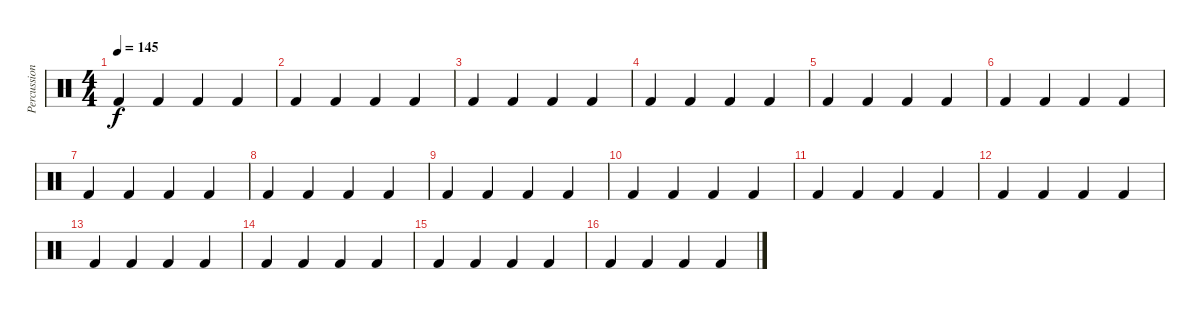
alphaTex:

\track ("Percussion" "Percussion") {instrument percussion bank 1}
\staff {score}
\articulation defaults
\ts (4 4)
\tempo 145
\clef neutral
\ks c "Kick (hit) 2".4{dy f} "Kick (hit) 2".4 "Kick (hit) 2".4 "Kick (hit) 2".4
|
"Kick (hit) 2".4 "Kick (hit) 2".4 "Kick (hit) 2".4 "Kick (hit) 2".4 |
"Kick (hit) 2".4 "Kick (hit) 2".4 "Kick (hit) 2".4 "Kick (hit) 2".4 |
"Kick (hit) 2".4 "Kick (hit) 2".4 "Kick (hit) 2".4 "Kick (hit) 2".4 |
"Kick (hit) 2".4 "Kick (hit) 2".4 "Kick (hit) 2".4 "Kick (hit) 2".4 |
"Kick (hit) 2".4 "Kick (hit) 2".4 "Kick (hit) 2".4 "Kick (hit) 2".4 |
"Kick (hit) 2".4 "Kick (hit) 2".4 "Kick (hit) 2".4 "Kick (hit) 2".4 |
"Kick (hit) 2".4 "Kick (hit) 2".4 "Kick (hit) 2".4 "Kick (hit) 2".4 |
"Kick (hit) 2".4 "Kick (hit) 2".4 "Kick (hit) 2".4 "Kick (hit) 2".4 |
"Kick (hit) 2".4 "Kick (hit) 2".4 "Kick (hit) 2".4 "Kick (hit) 2".4 |
"Kick (hit) 2".4 "Kick (hit) 2".4 "Kick (hit) 2".4 "Kick (hit) 2".4 |
"Kick (hit) 2".4 "Kick (hit) 2".4 "Kick (hit) 2".4 "Kick (hit) 2".4 |
"Kick (hit) 2".4 "Kick (hit) 2".4 "Kick (hit) 2".4 "Kick (hit) 2".4 |
"Kick (hit) 2".4 "Kick (hit) 2".4 "Kick (hit) 2".4 "Kick (hit) 2".4 |
"Kick (hit) 2".4 "Kick (hit) 2".4 "Kick (hit) 2".4 "Kick (hit) 2".4 |
"Kick (hit) 2".4 "Kick (hit) 2".4 "Kick (hit) 2".4 "Kick (hit) 2".4
